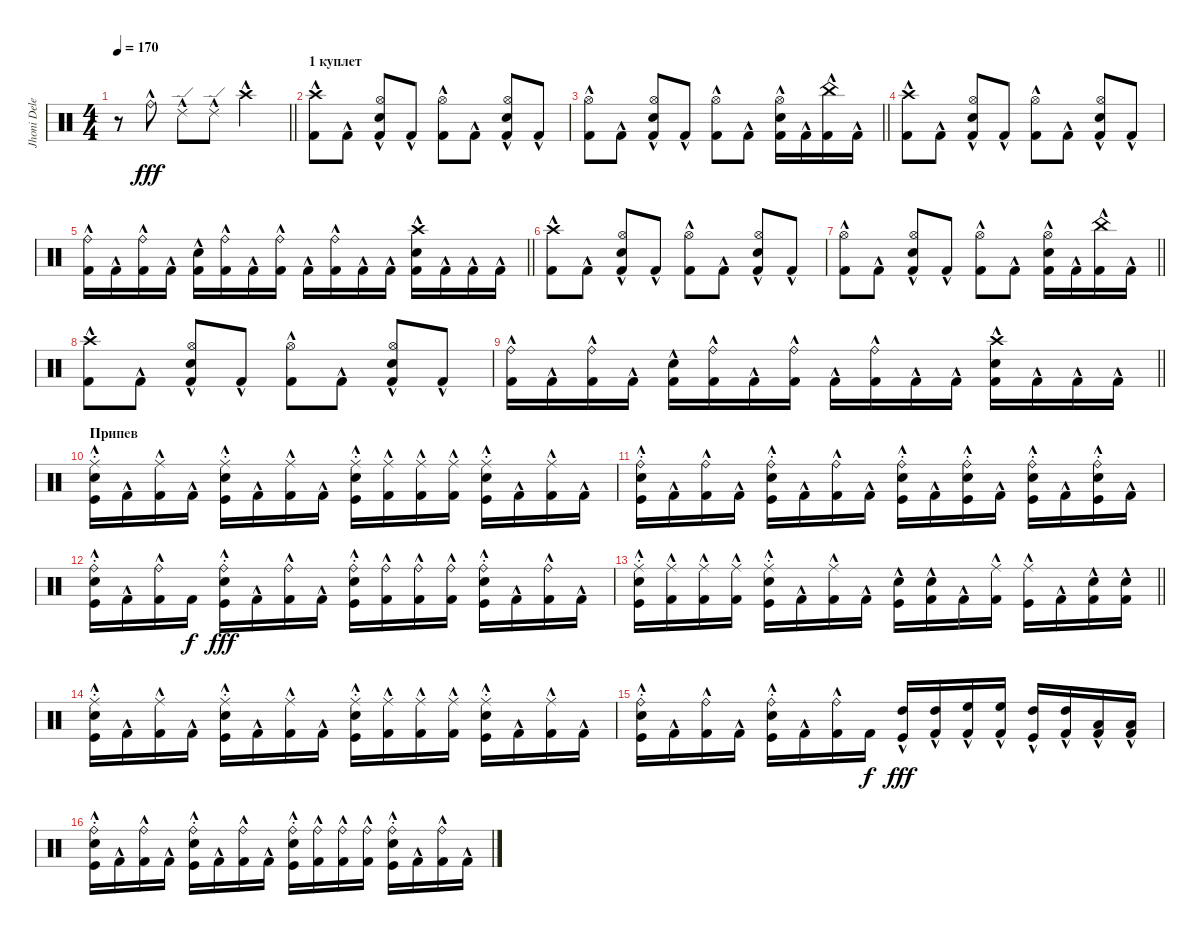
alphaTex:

\track ("Jhoni Delenger" "Jhoni Dele") {instrument percussion}
\staff {score}
\articulation defaults
\ts (4 4)
\tempo 170
\clef neutral
\barLineRight lightlight
\ks c
r.8{dy fff} "Ride (bell)"{hac}.8 "Ride (edge) 2"{hac}.8 "Ride (edge) 2"{hac}.8 "Crash high (hit)"{hac}.2 |
\section ("" "1 куплет")
("Crash high (hit)" "Kick (hit) 2"{hac}).8 "Kick (hit) 2"{hac}.8 ("Hi-Hat (open)" "Snare (hit) 2" "Kick (hit) 2"{hac}).8 "Kick (hit) 2"{hac}.8 ("Hi-Hat (open)" "Kick (hit) 2"{hac}).8 "Kick (hit) 2"{hac}.8 ("Hi-Hat (open)" "Snare (hit) 2" "Kick (hit) 2"{hac}).8 "Kick (hit) 2"{hac}.8 |
\barLineRight lightlight
("Hi-Hat (open)" "Kick (hit) 2"{hac}).8 "Kick (hit) 2"{hac}.8 ("Hi-Hat (open)" "Snare (hit) 2" "Kick (hit) 2"{hac}).8 "Kick (hit) 2"{hac}.8 ("Hi-Hat (open)" "Kick (hit) 2"{hac}).8 "Kick (hit) 2"{hac}.8 ("Hi-Hat (open)" "Snare (hit) 2" "Kick (hit) 2"{hac}).16 "Kick (hit) 2"{hac}.16 ("China (hit)" "Kick (hit) 2"{hac}).16 "Kick (hit) 2"{hac}.16 |
("Crash high (hit)" "Kick (hit) 2"{hac}).8 "Kick (hit) 2"{hac}.8 ("Hi-Hat (open)" "Snare (hit) 2" "Kick (hit) 2"{hac}).8 "Kick (hit) 2"{hac}.8 ("Hi-Hat (open)" "Kick (hit) 2"{hac}).8 "Kick (hit) 2"{hac}.8 ("Hi-Hat (open)" "Snare (hit) 2" "Kick (hit) 2"{hac}).8 "Kick (hit) 2"{hac}.8 |
\barLineRight lightlight
("Kick (hit) 2"{hac} "Ride (bell)"{hac}).16 "Kick (hit) 2"{hac}.16 ("Kick (hit) 2"{hac} "Ride (bell)"{hac}).16 "Kick (hit) 2"{hac}.16 ("Snare (hit) 2" "Kick (hit) 2"{hac}).16 ("Ride (bell)"{hac} "Kick (hit) 2"{hac}).16 "Kick (hit) 2"{hac}.16 ("Ride (bell)"{hac} "Kick (hit) 2"{hac}).16 "Kick (hit) 2"{hac}.16 ("Ride (bell)"{hac} "Kick (hit) 2"{hac}).16 "Kick (hit) 2"{hac}.16 "Kick (hit) 2"{hac}.16 ("Crash high (hit)" "Snare (hit) 2" "Kick (hit) 2"{hac}).16 "Kick (hit) 2"{hac}.16 "Kick (hit) 2"{hac}.16 "Kick (hit) 2"{hac}.16 |
("Crash high (hit)" "Kick (hit) 2"{hac}).8 "Kick (hit) 2"{hac}.8 ("Hi-Hat (open)" "Snare (hit) 2" "Kick (hit) 2"{hac}).8 "Kick (hit) 2"{hac}.8 ("Hi-Hat (open)" "Kick (hit) 2"{hac}).8 "Kick (hit) 2"{hac}.8 ("Hi-Hat (open)" "Snare (hit) 2" "Kick (hit) 2"{hac}).8 "Kick (hit) 2"{hac}.8 |
\barLineRight lightlight
("Hi-Hat (open)" "Kick (hit) 2"{hac}).8 "Kick (hit) 2"{hac}.8 ("Hi-Hat (open)" "Snare (hit) 2" "Kick (hit) 2"{hac}).8 "Kick (hit) 2"{hac}.8 ("Hi-Hat (open)" "Kick (hit) 2"{hac}).8 "Kick (hit) 2"{hac}.8 ("Hi-Hat (open)" "Snare (hit) 2" "Kick (hit) 2"{hac}).16 "Kick (hit) 2"{hac}.16 ("China (hit)"{hac} "Kick (hit) 2"{hac}).16 "Kick (hit) 2"{hac}.16 |
("Crash high (hit)" "Kick (hit) 2"{hac}).8 "Kick (hit) 2"{hac}.8 ("Hi-Hat (open)" "Snare (hit) 2" "Kick (hit) 2"{hac}).8 "Kick (hit) 2"{hac}.8 ("Hi-Hat (open)" "Kick (hit) 2"{hac}).8 "Kick (hit) 2"{hac}.8 ("Hi-Hat (open)" "Snare (hit) 2" "Kick (hit) 2"{hac}).8 "Kick (hit) 2"{hac}.8 |
\barLineRight lightlight
("Kick (hit) 2"{hac} "Ride (bell)").16 "Kick (hit) 2"{hac}.16 ("Kick (hit) 2"{hac} "Ride (bell)").16 "Kick (hit) 2"{hac}.16 ("Snare (hit) 2" "Kick (hit) 2"{hac}).16 ("Ride (bell)" "Kick (hit) 2"{hac}).16 "Kick (hit) 2"{hac}.16 ("Ride (bell)" "Kick (hit) 2"{hac}).16 "Kick (hit) 2"{hac}.16 ("Ride (bell)" "Kick (hit) 2"{hac}).16 "Kick (hit) 2"{hac}.16 "Kick (hit) 2"{hac}.16 ("Crash high (hit)" "Snare (hit) 2" "Kick (hit) 2"{hac}).16 "Kick (hit) 2"{hac}.16 "Kick (hit) 2"{hac}.16 "Kick (hit) 2"{hac}.16 |
\section ("" "Припев")
("Snare (hit) 2"{st} "Ride (middle)"{hac} "Kick (hit)"{hac}).16 "Kick (hit) 2"{hac}.16 ("Kick (hit) 2"{hac} "Ride (middle)"{hac}).16 "Kick (hit) 2"{hac}.16 ("Snare (hit) 2"{st} "Ride (middle)"{hac} "Kick (hit)"{hac}).16 "Kick (hit) 2"{hac}.16 ("Kick (hit) 2"{hac} "Ride (middle)"{hac}).16 "Kick (hit) 2"{hac}.16 ("Snare (hit) 2"{st} "Ride (middle)"{hac} "Kick (hit)"{hac}).16 ("Kick (hit) 2"{hac} "Ride (middle)"{hac}).16 ("Kick (hit) 2"{hac} "Ride (middle)"{hac}).16 ("Kick (hit) 2"{hac} "Ride (middle)"{hac}).16 ("Snare (hit) 2"{st} "Ride (middle)"{hac} "Kick (hit)"{hac}).16 "Kick (hit) 2"{hac}.16 ("Kick (hit) 2"{hac} "Ride (middle)"{hac}).16 "Kick (hit) 2"{hac}.16 |
("Snare (hit) 2"{st} "Ride (bell)"{hac} "Kick (hit)"{hac}).16 "Kick (hit) 2"{hac}.16 ("Kick (hit) 2"{hac} "Ride (bell)"{hac}).16 "Kick (hit) 2"{hac}.16 ("Snare (hit) 2"{st} "Ride (bell)"{hac} "Kick (hit)"{hac}).16 "Kick (hit) 2"{hac}.16 ("Kick (hit) 2"{hac} "Ride (bell)"{hac}).16 "Kick (hit) 2"{hac}.16 ("Snare (hit) 2"{st} "Ride (bell)"{hac} "Kick (hit)"{hac}).16 "Kick (hit) 2"{hac}.16 ("Snare (hit) 2"{st} "Ride (bell)"{hac} "Kick (hit)"{hac}).16 "Kick (hit) 2"{hac}.16 ("Snare (hit) 2"{st} "Ride (bell)"{hac} "Kick (hit)"{hac}).16 "Kick (hit) 2"{hac}.16 ("Snare (hit) 2"{st} "Ride (bell)"{hac} "Kick (hit)"{hac}).16 "Kick (hit) 2"{hac}.16 |
("Snare (hit) 2"{st} "Ride (bell)"{hac} "Kick (hit)"{hac}).16 "Kick (hit) 2"{hac}.16 ("Kick (hit) 2"{hac} "Ride (bell)"{hac}).16 "Kick (hit) 2".16{dy f} ("Snare (hit) 2"{st} "Ride (bell)"{hac} "Kick (hit)"{hac}).16{dy fff} "Kick (hit) 2"{hac}.16 ("Kick (hit) 2"{hac} "Ride (bell)"{hac}).16 "Kick (hit) 2"{hac}.16 ("Snare (hit) 2"{st} "Ride (bell)"{hac} "Kick (hit)"{hac}).16 ("Kick (hit) 2"{hac} "Ride (bell)"{hac}).16 ("Kick (hit) 2"{hac} "Ride (bell)"{hac}).16 ("Kick (hit) 2"{hac} "Ride (bell)"{hac}).16 ("Snare (hit) 2"{st} "Ride (bell)"{hac} "Kick (hit)"{hac}).16 "Kick (hit) 2"{hac}.16 ("Kick (hit) 2"{hac} "Ride (bell)"{hac}).16 "Kick (hit) 2"{hac}.16 |
\barLineRight lightlight
("Snare (hit) 2"{st} "Ride (middle)"{hac} "Kick (hit)"{hac}).16 ("Kick (hit) 2"{hac} "Ride (middle)"{hac}).16 ("Kick (hit) 2"{hac} "Ride (middle)"{hac}).16 ("Kick (hit) 2"{hac} "Ride (middle)"{hac}).16 ("Snare (hit) 2"{st} "Ride (middle)"{hac} "Kick (hit)"{hac}).16 "Kick (hit) 2"{hac}.16 ("Kick (hit) 2"{hac} "Ride (middle)"{hac}).16 "Kick (hit) 2"{hac}.16 ("Snare (hit) 2" "Kick (hit)"{hac}).16 ("Kick (hit) 2"{hac} "Snare (hit) 2").16 "Kick (hit) 2"{hac}.16 ("Kick (hit) 2"{hac} "Ride (middle)"{hac}).16 ("Ride (middle)"{hac} "Kick (hit)"{hac}).16 "Kick (hit) 2"{hac}.16 ("Kick (hit) 2"{hac} "Snare (hit) 2").16 ("Kick (hit) 2"{hac} "Snare (hit) 2").16 |
("Snare (hit) 2"{st} "Ride (middle)"{hac} "Kick (hit)"{hac}).16 "Kick (hit) 2"{hac}.16 ("Kick (hit) 2"{hac} "Ride (middle)"{hac}).16 "Kick (hit) 2"{hac}.16 ("Snare (hit) 2"{st} "Ride (middle)"{hac} "Kick (hit)"{hac}).16 "Kick (hit) 2"{hac}.16 ("Kick (hit) 2"{hac} "Ride (middle)"{hac}).16 "Kick (hit) 2"{hac}.16 ("Snare (hit) 2"{st} "Ride (middle)"{hac} "Kick (hit)"{hac}).16 ("Kick (hit) 2"{hac} "Ride (middle)"{hac}).16 ("Kick (hit) 2"{hac} "Ride (middle)"{hac}).16 ("Kick (hit) 2"{hac} "Ride (middle)"{hac}).16 ("Snare (hit) 2"{st} "Ride (middle)"{hac} "Kick (hit)"{hac}).16 "Kick (hit) 2"{hac}.16 ("Kick (hit) 2"{hac} "Ride (middle)"{hac}).16 "Kick (hit) 2"{hac}.16 |
("Snare (hit) 2"{st} "Ride (bell)"{hac} "Kick (hit)"{hac}).16 "Kick (hit) 2"{hac}.16 ("Kick (hit) 2"{hac} "Ride (bell)"{hac}).16 "Kick (hit) 2"{hac}.16 ("Snare (hit) 2"{st} "Ride (bell)"{hac} "Kick (hit)"{hac}).16 "Kick (hit) 2"{hac}.16 ("Kick (hit) 2"{hac} "Ride (bell)"{hac}).16 "Kick (hit) 2".16{dy f} ("High Tom (hit)"{hac} "Kick (hit)"{hac}).16{dy fff} ("Kick (hit) 2"{hac} "High Tom (hit)"{hac}).16 ("Kick (hit) 2"{hac} "High Floor Tom (hit)"{hac}).16 ("Kick (hit) 2"{hac} "High Floor Tom (hit)"{hac}).16 ("High Tom (hit)"{hac} "Kick (hit)"{hac}).16 ("Kick (hit) 2"{hac} "High Tom (hit)"{hac}).16 ("Kick (hit) 2"{hac} "Low Tom (hit)"{hac}).16 ("Kick (hit) 2"{hac} "Low Tom (hit)"{hac}).16 |
("Snare (hit) 2"{st} "Ride (bell)"{hac} "Kick (hit)"{hac}).16 "Kick (hit) 2"{hac}.16 ("Kick (hit) 2"{hac} "Ride (bell)"{hac}).16 "Kick (hit) 2"{hac}.16 ("Snare (hit) 2"{st} "Ride (bell)"{hac} "Kick (hit)"{hac}).16 "Kick (hit) 2"{hac}.16 ("Kick (hit) 2"{hac} "Ride (bell)"{hac}).16 "Kick (hit) 2"{hac}.16 ("Snare (hit) 2"{st} "Ride (bell)"{hac} "Kick (hit)"{hac}).16 ("Kick (hit) 2"{hac} "Ride (bell)"{hac}).16 ("Kick (hit) 2"{hac} "Ride (bell)"{hac}).16 ("Kick (hit) 2"{hac} "Ride (bell)"{hac}).16 ("Snare (hit) 2"{st} "Ride (bell)"{hac} "Kick (hit)"{hac}).16 "Kick (hit) 2"{hac}.16 ("Kick (hit) 2"{hac} "Ride (bell)"{hac}).16 "Kick (hit) 2"{hac}.16
